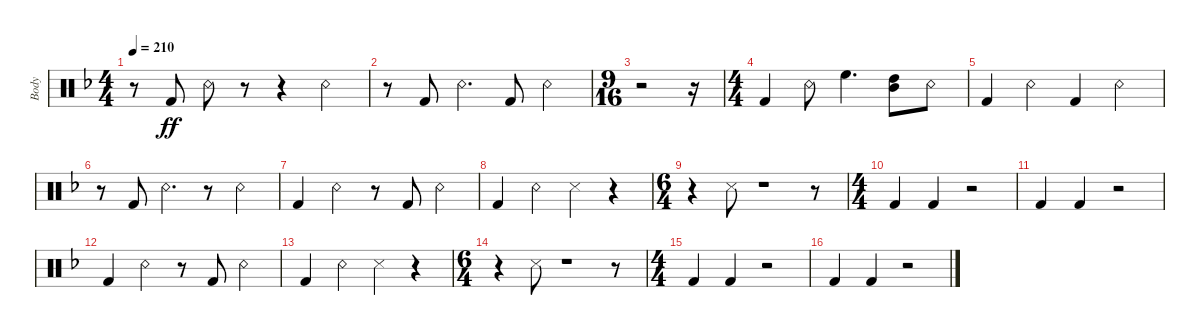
\track ("Body" "Body") {instrument percussion}
\staff {score}
\articulation defaults
\ts (4 4)
\tempo 210
\clef neutral
\ks dminor
r.8{dy ff} "Kick (hit) 2".8 "Snare (rim shot)".8 r.8 r.4 "Snare (rim shot)".4 |
r.8 "Kick (hit) 2".8 "Snare (rim shot)".4{d} "Kick (hit) 2".8 "Snare (rim shot)".4 |
\ts (9 16)
r.2 r.16 |
\ts (4 4)
"Kick (hit) 2".4 "Snare (rim shot)".8 "High Floor Tom (hit)".4{d} ("High Tom (hit)" "Mid Tom (hit)").8 "Snare (rim shot)".8 |
"Kick (hit) 2".4 "Snare (rim shot)".4 "Kick (hit) 2".4 "Snare (rim shot)".4 |
r.8 "Kick (hit) 2".8 "Snare (rim shot)".4{d} r.8 "Snare (rim shot)".4 |
"Kick (hit) 2".4 "Snare (rim shot)".4 r.8 "Kick (hit) 2".8 "Snare (rim shot)".4 |
"Kick (hit) 2".4 "Snare (rim shot)".4 "Snare (side stick) 3".4 r.4 |
\ts (6 4)
r.4 "Snare (side stick) 3".8 r.1 r.8 |
\ts (4 4)
"Kick (hit) 2".4 "Kick (hit) 2".4 r.2 |
"Kick (hit) 2".4 "Kick (hit) 2".4 r.2 |
"Kick (hit) 2".4 "Snare (rim shot)".4 r.8 "Kick (hit) 2".8 "Snare (rim shot)".4 |
"Kick (hit) 2".4 "Snare (rim shot)".4 "Snare (side stick) 3".4 r.4 |
\ts (6 4)
r.4 "Snare (side stick) 3".8 r.1 r.8 |
\ts (4 4)
"Kick (hit) 2".4 "Kick (hit) 2".4 r.2 |
"Kick (hit) 2".4 "Kick (hit) 2".4 r.2
